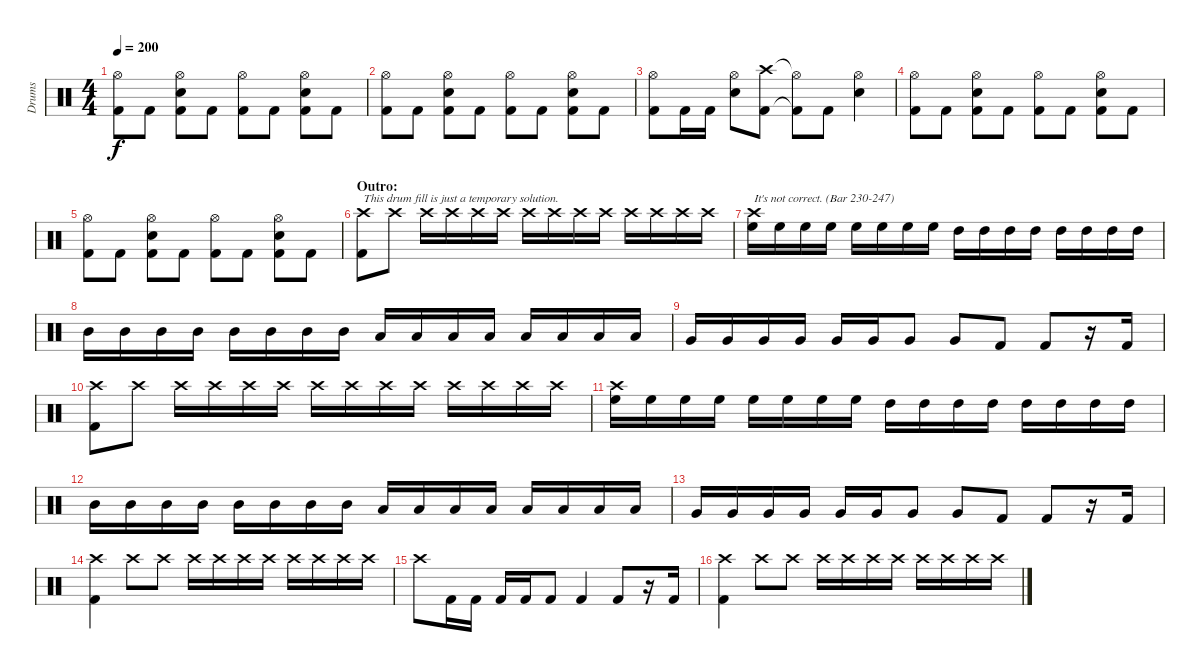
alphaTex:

\track ("Drums" "Drums") {instrument percussion}
\staff {score}
\articulation defaults
\ts (4 4)
\tempo 200
\clef neutral
\ks c
("Hi-Hat (open)" "Kick (hit) 2").8{dy f} "Kick (hit) 2".8 ("Hi-Hat (open)" "Electric Snare (hit)" "Kick (hit) 2").8 "Kick (hit) 2".8 ("Hi-Hat (open)" "Kick (hit) 2").8 "Kick (hit) 2".8 ("Hi-Hat (open)" "Electric Snare (hit)" "Kick (hit) 2").8 "Kick (hit) 2".8 |
("Hi-Hat (open)" "Kick (hit) 2").8 "Kick (hit) 2".8 ("Hi-Hat (open)" "Electric Snare (hit)" "Kick (hit) 2").8 "Kick (hit) 2".8 ("Hi-Hat (open)" "Kick (hit) 2").8 "Kick (hit) 2".8 ("Hi-Hat (open)" "Electric Snare (hit)" "Kick (hit) 2").8 "Kick (hit) 2".8 |
("Hi-Hat (open)" "Kick (hit) 2").8 "Kick (hit) 2".16 "Kick (hit) 2".16 ("Hi-Hat (open)" "Electric Snare (hit)").8 ("Crash high (hit)" "Kick (hit) 2").8 ("Hi-Hat (open)"{t} "Kick (hit) 2"{t}).8 "Kick (hit) 2".8 ("Hi-Hat (open)" "Electric Snare (hit)").4 |
("Hi-Hat (open)" "Kick (hit) 2").8 "Kick (hit) 2".8 ("Hi-Hat (open)" "Electric Snare (hit)" "Kick (hit) 2").8 "Kick (hit) 2".8 ("Hi-Hat (open)" "Kick (hit) 2").8 "Kick (hit) 2".8 ("Hi-Hat (open)" "Electric Snare (hit)" "Kick (hit) 2").8 "Kick (hit) 2".8 |
("Hi-Hat (open)" "Kick (hit) 2").8 "Kick (hit) 2".8 ("Hi-Hat (open)" "Electric Snare (hit)" "Kick (hit) 2").8 "Kick (hit) 2".8 ("Hi-Hat (open)" "Kick (hit) 2").8 "Kick (hit) 2".8 ("Hi-Hat (open)" "Electric Snare (hit)" "Kick (hit) 2").8 "Kick (hit) 2".8 |
\section ("" "Outro:")
("Crash high (hit)" "Kick (hit) 2").8{txt "This drum fill is just a temporary solution."} "Crash high (hit)".8 "Crash high (hit)".16 "Crash high (hit)".16 "Crash high (hit)".16 "Crash high (hit)".16 "Crash high (hit)".16 "Crash high (hit)".16 "Crash high (hit)".16 "Crash high (hit)".16 "Crash high (hit)".16 "Crash high (hit)".16 "Crash high (hit)".16 "Crash high (hit)".16 |
("Crash high (hit)" "High Floor Tom (hit)").16{txt "It's not correct. (Bar 230-247)"} "High Floor Tom (hit)".16 "High Floor Tom (hit)".16 "High Floor Tom (hit)".16 "High Floor Tom (hit)".16 "High Floor Tom (hit)".16 "High Floor Tom (hit)".16 "High Floor Tom (hit)".16 "High Tom (hit)".16 "High Tom (hit)".16 "High Tom (hit)".16 "High Tom (hit)".16 "High Tom (hit)".16 "High Tom (hit)".16 "High Tom (hit)".16 "High Tom (hit)".16 |
"Mid Tom (hit)".16 "Mid Tom (hit)".16 "Mid Tom (hit)".16 "Mid Tom (hit)".16 "Mid Tom (hit)".16 "Mid Tom (hit)".16 "Mid Tom (hit)".16 "Mid Tom (hit)".16 "Low Tom (hit)".16 "Low Tom (hit)".16 "Low Tom (hit)".16 "Low Tom (hit)".16 "Low Tom (hit)".16 "Low Tom (hit)".16 "Low Tom (hit)".16 "Low Tom (hit)".16 |
"Very Low Tom (hit)".16 "Very Low Tom (hit)".16 "Very Low Tom (hit)".16 "Very Low Tom (hit)".16 "Very Low Tom (hit)".16 "Very Low Tom (hit)".16 "Very Low Tom (hit)".8 "Very Low Tom (hit)".8 "Kick (hit) 2".8 "Kick (hit) 2".8 r.16 "Kick (hit) 2".16 |
("Crash high (hit)" "Kick (hit) 2").8 "Crash high (hit)".8 "Crash high (hit)".16 "Crash high (hit)".16 "Crash high (hit)".16 "Crash high (hit)".16 "Crash high (hit)".16 "Crash high (hit)".16 "Crash high (hit)".16 "Crash high (hit)".16 "Crash high (hit)".16 "Crash high (hit)".16 "Crash high (hit)".16 "Crash high (hit)".16 |
("Crash high (hit)" "High Floor Tom (hit)").16 "High Floor Tom (hit)".16 "High Floor Tom (hit)".16 "High Floor Tom (hit)".16 "High Floor Tom (hit)".16 "High Floor Tom (hit)".16 "High Floor Tom (hit)".16 "High Floor Tom (hit)".16 "High Tom (hit)".16 "High Tom (hit)".16 "High Tom (hit)".16 "High Tom (hit)".16 "High Tom (hit)".16 "High Tom (hit)".16 "High Tom (hit)".16 "High Tom (hit)".16 |
"Mid Tom (hit)".16 "Mid Tom (hit)".16 "Mid Tom (hit)".16 "Mid Tom (hit)".16 "Mid Tom (hit)".16 "Mid Tom (hit)".16 "Mid Tom (hit)".16 "Mid Tom (hit)".16 "Low Tom (hit)".16 "Low Tom (hit)".16 "Low Tom (hit)".16 "Low Tom (hit)".16 "Low Tom (hit)".16 "Low Tom (hit)".16 "Low Tom (hit)".16 "Low Tom (hit)".16 |
"Very Low Tom (hit)".16 "Very Low Tom (hit)".16 "Very Low Tom (hit)".16 "Very Low Tom (hit)".16 "Very Low Tom (hit)".16 "Very Low Tom (hit)".16 "Very Low Tom (hit)".8 "Very Low Tom (hit)".8 "Kick (hit) 2".8 "Kick (hit) 2".8 r.16 "Kick (hit) 2".16 |
("Crash high (hit)" "Kick (hit) 2").4 "Crash high (hit)".8 "Crash high (hit)".8 "Crash high (hit)".16 "Crash high (hit)".16 "Crash high (hit)".16 "Crash high (hit)".16 "Crash high (hit)".16 "Crash high (hit)".16 "Crash high (hit)".16 "Crash high (hit)".16 |
"Crash high (hit)".8 "Kick (hit) 2".16 "Kick (hit) 2".16 "Kick (hit) 2".16 "Kick (hit) 2".16 "Kick (hit) 2".8 "Kick (hit) 2".4 "Kick (hit) 2".8 r.16 "Kick (hit) 2".16 |
("Crash high (hit)" "Kick (hit) 2").4 "Crash high (hit)".8 "Crash high (hit)".8 "Crash high (hit)".16 "Crash high (hit)".16 "Crash high (hit)".16 "Crash high (hit)".16 "Crash high (hit)".16 "Crash high (hit)".16 "Crash high (hit)".16 "Crash high (hit)".16
